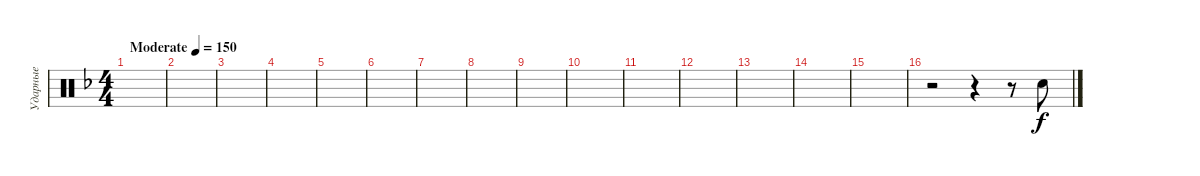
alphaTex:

\track ("Ударные" "Ударные") {instrument percussion}
\staff {score}
\articulation defaults
\ts (4 4)
\tempo (150 "Moderate")
\clef neutral
\ks dminor
|
|
|
|
|
|
|
|
|
|
|
|
|
|
|
r.2 r.4 r.8 "Electric Snare (hit)".8
